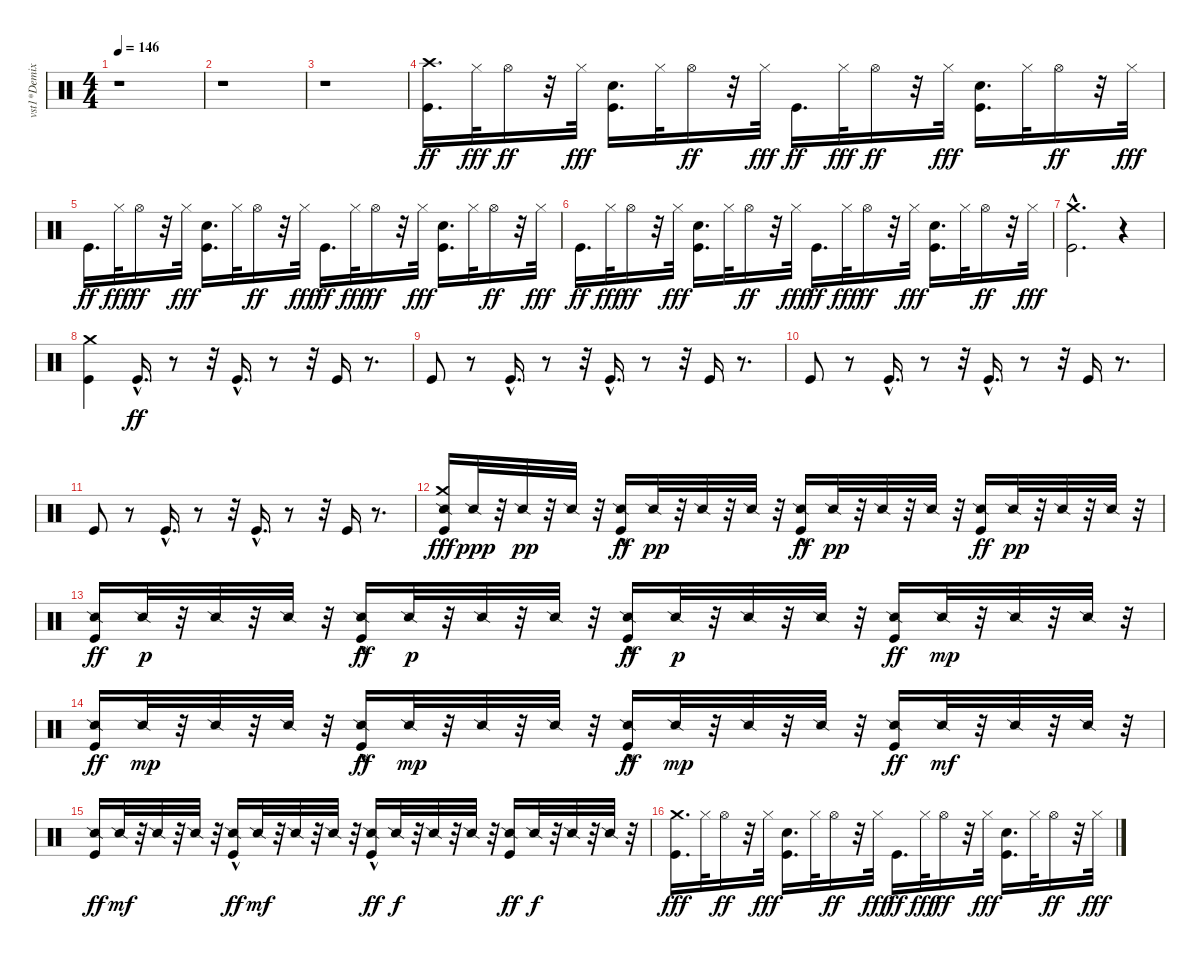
\track ("vst1*Demixed 10" "vst1*Demix") {instrument percussion}
\staff {score}
\articulation defaults
\ts (4 4)
\tempo 146
\clef neutral
\ks c
r.1{dy ff} |
r.1 |
r.1 |
("Kick (hit)" "Crash high (hit)").16{d} "Hi-Hat (closed)".32{dy fff} "Hi-Hat (open)".16{dy ff} r.32 "Hi-Hat (closed)".32{dy fff} ("Kick (hit)" "Hand Clap (hit)").16{d} "Hi-Hat (closed)".32 "Hi-Hat (open)".16{dy ff} r.32 "Hi-Hat (closed)".32{dy fff} "Kick (hit)".16{d dy ff} "Hi-Hat (closed)".32{dy fff} "Hi-Hat (open)".16{dy ff} r.32 "Hi-Hat (closed)".32{dy fff} ("Kick (hit)" "Hand Clap (hit)").16{d} "Hi-Hat (closed)".32 "Hi-Hat (open)".16{dy ff} r.32 "Hi-Hat (closed)".32{dy fff} |
"Kick (hit)".16{d dy ff} "Hi-Hat (closed)".32{dy fff} "Hi-Hat (open)".16{dy ff} r.32 "Hi-Hat (closed)".32{dy fff} ("Kick (hit)" "Hand Clap (hit)").16{d} "Hi-Hat (closed)".32 "Hi-Hat (open)".16{dy ff} r.32 "Hi-Hat (closed)".32{dy fff} "Kick (hit)".16{d dy ff} "Hi-Hat (closed)".32{dy fff} "Hi-Hat (open)".16{dy ff} r.32 "Hi-Hat (closed)".32{dy fff} ("Kick (hit)" "Hand Clap (hit)").16{d} "Hi-Hat (closed)".32 "Hi-Hat (open)".16{dy ff} r.32 "Hi-Hat (closed)".32{dy fff} |
"Kick (hit)".16{d dy ff} "Hi-Hat (closed)".32{dy fff} "Hi-Hat (open)".16{dy ff} r.32 "Hi-Hat (closed)".32{dy fff} ("Kick (hit)" "Hand Clap (hit)").16{d} "Hi-Hat (closed)".32 "Hi-Hat (open)".16{dy ff} r.32 "Hi-Hat (closed)".32{dy fff} "Kick (hit)".16{d dy ff} "Hi-Hat (closed)".32{dy fff} "Hi-Hat (open)".16{dy ff} r.32 "Hi-Hat (closed)".32{dy fff} ("Kick (hit)" "Hand Clap (hit)").16{d} "Hi-Hat (closed)".32 "Hi-Hat (open)".16{dy ff} r.32 "Hi-Hat (closed)".32{dy fff} |
("Kick (hit)"{hac} "Crash medium (hit)"{hac}).2{d} r.4 |
("Kick (hit)" "Crash medium (hit)").4 "Kick (hit)"{hac}.16{d dy ff} r.8 r.32 "Kick (hit)"{hac}.16{d} r.8 r.32 "Kick (hit)".16 r.8{d} |
"Kick (hit)".8 r.8 "Kick (hit)"{hac}.16{d} r.8 r.32 "Kick (hit)"{hac}.16{d} r.8 r.32 "Kick (hit)".16 r.8{d} |
"Kick (hit)".8 r.8 "Kick (hit)"{hac}.16{d} r.8 r.32 "Kick (hit)"{hac}.16{d} r.8 r.32 "Kick (hit)".16 r.8{d} |
"Kick (hit)".8 r.8 "Kick (hit)"{hac}.16{d} r.8 r.32 "Kick (hit)"{hac}.16{d} r.8 r.32 "Kick (hit)".16 r.8{d} |
("Snare (side stick) 2" "Kick (hit)" "Crash medium (hit)").16{dy fff} "Snare (side stick) 2".32{dy ppp} r.32 "Snare (side stick) 2".32{dy pp} r.32 "Snare (side stick) 2".32 r.32 ("Snare (side stick) 2" "Kick (hit)"{hac}).16{dy ff} "Snare (side stick) 2".32{dy pp} r.32 "Snare (side stick) 2".32 r.32 "Snare (side stick) 2".32 r.32 ("Snare (side stick) 2" "Kick (hit)"{hac}).16{dy ff} "Snare (side stick) 2".32{dy pp} r.32 "Snare (side stick) 2".32 r.32 "Snare (side stick) 2".32 r.32 ("Snare (side stick) 2" "Kick (hit)").16{dy ff} "Snare (side stick) 2".32{dy pp} r.32 "Snare (side stick) 2".32 r.32 "Snare (side stick) 2".32 r.32 |
("Snare (side stick) 2" "Kick (hit)").16{dy ff} "Snare (side stick) 2".32{dy p} r.32 "Snare (side stick) 2".32 r.32 "Snare (side stick) 2".32 r.32 ("Snare (side stick) 2" "Kick (hit)"{hac}).16{dy ff} "Snare (side stick) 2".32{dy p} r.32 "Snare (side stick) 2".32 r.32 "Snare (side stick) 2".32 r.32 ("Snare (side stick) 2" "Kick (hit)"{hac}).16{dy ff} "Snare (side stick) 2".32{dy p} r.32 "Snare (side stick) 2".32 r.32 "Snare (side stick) 2".32 r.32 ("Snare (side stick) 2" "Kick (hit)").16{dy ff} "Snare (side stick) 2".32{dy mp} r.32 "Snare (side stick) 2".32 r.32 "Snare (side stick) 2".32 r.32 |
("Snare (side stick) 2" "Kick (hit)").16{dy ff} "Snare (side stick) 2".32{dy mp} r.32 "Snare (side stick) 2".32 r.32 "Snare (side stick) 2".32 r.32 ("Snare (side stick) 2" "Kick (hit)"{hac}).16{dy ff} "Snare (side stick) 2".32{dy mp} r.32 "Snare (side stick) 2".32 r.32 "Snare (side stick) 2".32 r.32 ("Snare (side stick) 2" "Kick (hit)"{hac}).16{dy ff} "Snare (side stick) 2".32{dy mp} r.32 "Snare (side stick) 2".32 r.32 "Snare (side stick) 2".32 r.32 ("Snare (side stick) 2" "Kick (hit)").16{dy ff} "Snare (side stick) 2".32{dy mf} r.32 "Snare (side stick) 2".32 r.32 "Snare (side stick) 2".32 r.32 |
("Snare (side stick) 2" "Kick (hit)").16{dy ff} "Snare (side stick) 2".32{dy mf} r.32 "Snare (side stick) 2".32 r.32 "Snare (side stick) 2".32 r.32 ("Snare (side stick) 2" "Kick (hit)"{hac}).16{dy ff} "Snare (side stick) 2".32{dy mf} r.32 "Snare (side stick) 2".32 r.32 "Snare (side stick) 2".32 r.32 ("Snare (side stick) 2" "Kick (hit)"{hac}).16{dy ff} "Snare (side stick) 2".32{dy f} r.32 "Snare (side stick) 2".32 r.32 "Snare (side stick) 2".32 r.32 ("Snare (side stick) 2" "Kick (hit)").16{dy ff} "Snare (side stick) 2".32{dy f} r.32 "Snare (side stick) 2".32 r.32 "Snare (side stick) 2".32 r.32 |
("Kick (hit)" "Crash medium (hit)").16{d dy fff} "Hi-Hat (closed)".32 "Hi-Hat (open)".16{dy ff} r.32 "Hi-Hat (closed)".32{dy fff} ("Kick (hit)" "Hand Clap (hit)").16{d} "Hi-Hat (closed)".32 "Hi-Hat (open)".16{dy ff} r.32 "Hi-Hat (closed)".32{dy fff} "Kick (hit)".16{d dy ff} "Hi-Hat (closed)".32{dy fff} "Hi-Hat (open)".16{dy ff} r.32 "Hi-Hat (closed)".32{dy fff} ("Kick (hit)" "Hand Clap (hit)").16{d} "Hi-Hat (closed)".32 "Hi-Hat (open)".16{dy ff} r.32 "Hi-Hat (closed)".32{dy fff}
